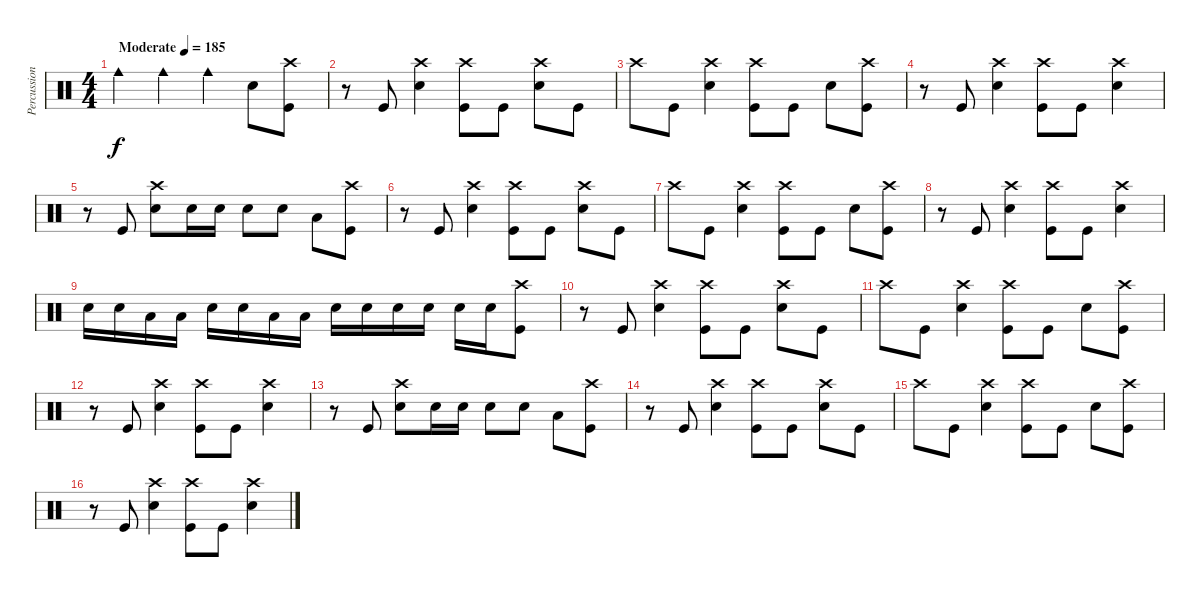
\track ("Percussion" "Percussion") {instrument percussion}
\staff {score}
\articulation defaults
\ts (4 4)
\tempo (185 "Moderate")
\clef neutral
\ks c "Cowbell medium (hit)".4{dy f} "Cowbell medium (hit)".4 "Cowbell medium (hit)".4 "Snare (hit) 2".8
("Crash high (hit)" "Kick (hit)").8 |
r.8 "Kick (hit)".8 ("Crash high (hit)" "Snare (hit) 2").4 ("Crash high (hit)" "Kick (hit)").8 "Kick (hit)".8 ("Crash high (hit)" "Snare (hit) 2").8 "Kick (hit)".8 |
"Crash high (hit)".8 "Kick (hit)".8 ("Crash high (hit)" "Snare (hit) 2").4 ("Crash high (hit)" "Kick (hit)").8 "Kick (hit)".8 "Snare (hit) 2".8 ("Crash high (hit)" "Kick (hit)").8 |
r.8 "Kick (hit)".8 ("Crash high (hit)" "Snare (hit) 2").4 ("Crash high (hit)" "Kick (hit)").8 "Kick (hit)".8 ("Crash high (hit)" "Snare (hit) 2").4 |
r.8 "Kick (hit)".8 ("Crash high (hit)" "Snare (hit) 2").8 "Snare (hit) 2".16 "Snare (hit) 2".16 "Snare (hit) 2".8 "Snare (hit) 2".8 "Low Tom (hit)".8 ("Crash high (hit)" "Kick (hit)").8 |
r.8 "Kick (hit)".8 ("Crash high (hit)" "Snare (hit) 2").4 ("Crash high (hit)" "Kick (hit)").8 "Kick (hit)".8 ("Crash high (hit)" "Snare (hit) 2").8 "Kick (hit)".8 |
"Crash high (hit)".8 "Kick (hit)".8 ("Crash high (hit)" "Snare (hit) 2").4 ("Crash high (hit)" "Kick (hit)").8 "Kick (hit)".8 "Snare (hit) 2".8 ("Crash high (hit)" "Kick (hit)").8 |
r.8 "Kick (hit)".8 ("Crash high (hit)" "Snare (hit) 2").4 ("Crash high (hit)" "Kick (hit)").8 "Kick (hit)".8 ("Crash high (hit)" "Snare (hit) 2").4 |
"Snare (hit) 2".16 "Snare (hit) 2".16 "Low Tom (hit)".16 "Low Tom (hit)".16 "Snare (hit) 2".16 "Snare (hit) 2".16 "Low Tom (hit)".16 "Low Tom (hit)".16 "Snare (hit) 2".16 "Snare (hit) 2".16 "Snare (hit) 2".16 "Snare (hit) 2".16 "Snare (hit) 2".16 "Snare (hit) 2".16 ("Crash high (hit)" "Kick (hit)").8 |
r.8 "Kick (hit)".8 ("Crash high (hit)" "Snare (hit) 2").4 ("Crash high (hit)" "Kick (hit)").8 "Kick (hit)".8 ("Crash high (hit)" "Snare (hit) 2").8 "Kick (hit)".8 |
"Crash high (hit)".8 "Kick (hit)".8 ("Crash high (hit)" "Snare (hit) 2").4 ("Crash high (hit)" "Kick (hit)").8 "Kick (hit)".8 "Snare (hit) 2".8 ("Crash high (hit)" "Kick (hit)").8 |
r.8 "Kick (hit)".8 ("Crash high (hit)" "Snare (hit) 2").4 ("Crash high (hit)" "Kick (hit)").8 "Kick (hit)".8 ("Crash high (hit)" "Snare (hit) 2").4 |
r.8 "Kick (hit)".8 ("Crash high (hit)" "Snare (hit) 2").8 "Snare (hit) 2".16 "Snare (hit) 2".16 "Snare (hit) 2".8 "Snare (hit) 2".8 "Low Tom (hit)".8 ("Crash high (hit)" "Kick (hit)").8 |
r.8 "Kick (hit)".8 ("Crash high (hit)" "Snare (hit) 2").4 ("Crash high (hit)" "Kick (hit)").8 "Kick (hit)".8 ("Crash high (hit)" "Snare (hit) 2").8 "Kick (hit)".8 |
"Crash high (hit)".8 "Kick (hit)".8 ("Crash high (hit)" "Snare (hit) 2").4 ("Crash high (hit)" "Kick (hit)").8 "Kick (hit)".8 "Snare (hit) 2".8 ("Crash high (hit)" "Kick (hit)").8 |
r.8 "Kick (hit)".8 ("Crash high (hit)" "Snare (hit) 2").4 ("Crash high (hit)" "Kick (hit)").8 "Kick (hit)".8 ("Crash high (hit)" "Snare (hit) 2").4
